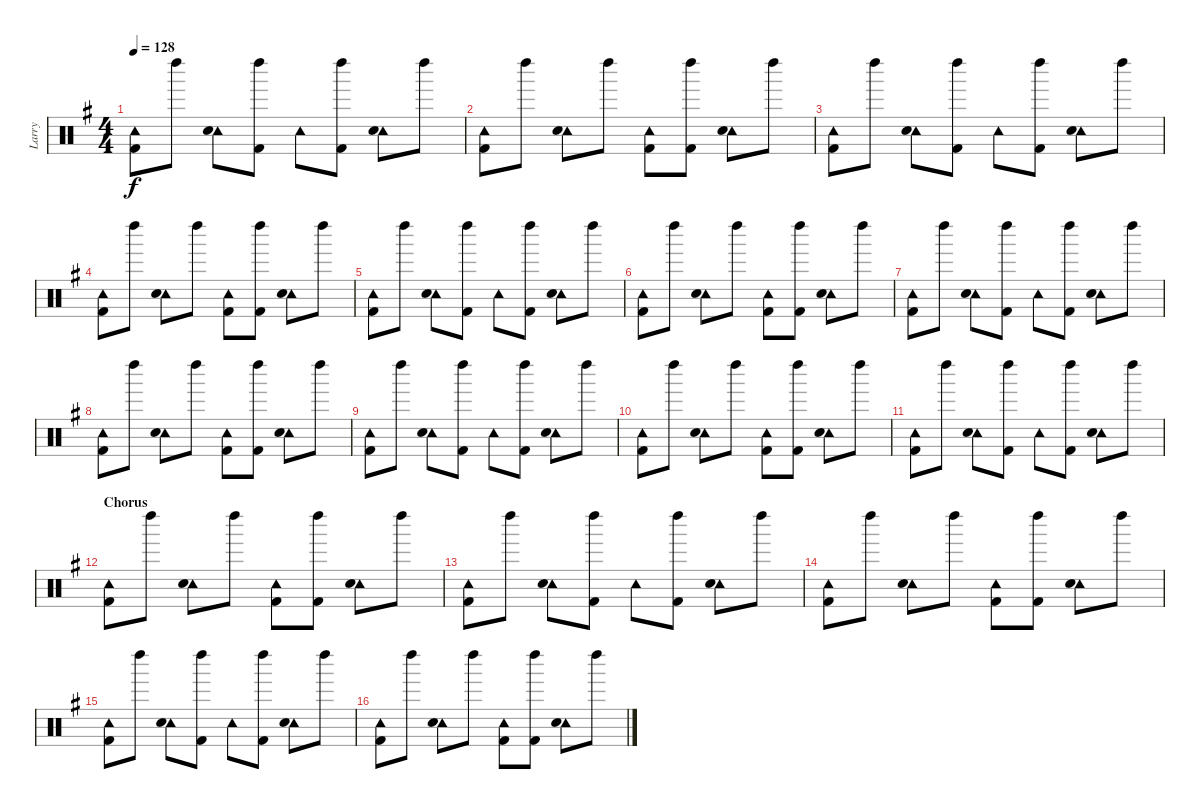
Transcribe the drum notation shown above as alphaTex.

\track ("Larry" "Larry") {instrument percussion}
\staff {score}
\articulation defaults
\ts (4 4)
\tempo 128
\clef neutral
\ks g
("Tambourine (hit)" "Kick (hit) 2").8{dy f} "Left Maraca (hit)".8 ("Tambourine (hit)" "Snare (hit) 2").8 ("Left Maraca (hit)" "Kick (hit) 2").8 "Tambourine (hit)".8 ("Left Maraca (hit)" "Kick (hit) 2").8 ("Tambourine (hit)" "Snare (hit) 2").8 "Left Maraca (hit)".8 |
("Tambourine (hit)" "Kick (hit) 2").8 "Left Maraca (hit)".8 ("Tambourine (hit)" "Snare (hit) 2").8 "Left Maraca (hit)".8 ("Tambourine (hit)" "Kick (hit) 2").8 ("Left Maraca (hit)" "Kick (hit) 2").8 ("Tambourine (hit)" "Snare (hit) 2").8 "Left Maraca (hit)".8 |
("Tambourine (hit)" "Kick (hit) 2").8 "Left Maraca (hit)".8 ("Tambourine (hit)" "Snare (hit) 2").8 ("Left Maraca (hit)" "Kick (hit) 2").8 "Tambourine (hit)".8 ("Left Maraca (hit)" "Kick (hit) 2").8 ("Tambourine (hit)" "Snare (hit) 2").8 "Left Maraca (hit)".8 |
("Tambourine (hit)" "Kick (hit) 2").8 "Left Maraca (hit)".8 ("Tambourine (hit)" "Snare (hit) 2").8 "Left Maraca (hit)".8 ("Tambourine (hit)" "Kick (hit) 2").8 ("Left Maraca (hit)" "Kick (hit) 2").8 ("Tambourine (hit)" "Snare (hit) 2").8 "Left Maraca (hit)".8 |
("Tambourine (hit)" "Kick (hit) 2").8 "Left Maraca (hit)".8 ("Tambourine (hit)" "Snare (hit) 2").8 ("Left Maraca (hit)" "Kick (hit) 2").8 "Tambourine (hit)".8 ("Left Maraca (hit)" "Kick (hit) 2").8 ("Tambourine (hit)" "Snare (hit) 2").8 "Left Maraca (hit)".8 |
("Tambourine (hit)" "Kick (hit) 2").8 "Left Maraca (hit)".8 ("Tambourine (hit)" "Snare (hit) 2").8 "Left Maraca (hit)".8 ("Tambourine (hit)" "Kick (hit) 2").8 ("Left Maraca (hit)" "Kick (hit) 2").8 ("Tambourine (hit)" "Snare (hit) 2").8 "Left Maraca (hit)".8 |
("Tambourine (hit)" "Kick (hit) 2").8 "Left Maraca (hit)".8 ("Tambourine (hit)" "Snare (hit) 2").8 ("Left Maraca (hit)" "Kick (hit) 2").8 "Tambourine (hit)".8 ("Left Maraca (hit)" "Kick (hit) 2").8 ("Tambourine (hit)" "Snare (hit) 2").8 "Left Maraca (hit)".8 |
("Tambourine (hit)" "Kick (hit) 2").8 "Left Maraca (hit)".8 ("Tambourine (hit)" "Snare (hit) 2").8 "Left Maraca (hit)".8 ("Tambourine (hit)" "Kick (hit) 2").8 ("Left Maraca (hit)" "Kick (hit) 2").8 ("Tambourine (hit)" "Snare (hit) 2").8 "Left Maraca (hit)".8 |
("Tambourine (hit)" "Kick (hit) 2").8 "Left Maraca (hit)".8 ("Tambourine (hit)" "Snare (hit) 2").8 ("Left Maraca (hit)" "Kick (hit) 2").8 "Tambourine (hit)".8 ("Left Maraca (hit)" "Kick (hit) 2").8 ("Tambourine (hit)" "Snare (hit) 2").8 "Left Maraca (hit)".8 |
("Tambourine (hit)" "Kick (hit) 2").8 "Left Maraca (hit)".8 ("Tambourine (hit)" "Snare (hit) 2").8 "Left Maraca (hit)".8 ("Tambourine (hit)" "Kick (hit) 2").8 ("Left Maraca (hit)" "Kick (hit) 2").8 ("Tambourine (hit)" "Snare (hit) 2").8 "Left Maraca (hit)".8 |
("Tambourine (hit)" "Kick (hit) 2").8 "Left Maraca (hit)".8 ("Tambourine (hit)" "Snare (hit) 2").8 ("Left Maraca (hit)" "Kick (hit) 2").8 "Tambourine (hit)".8 ("Left Maraca (hit)" "Kick (hit) 2").8 ("Tambourine (hit)" "Snare (hit) 2").8 "Left Maraca (hit)".8 |
\section ("" "Chorus")
("Tambourine (hit)" "Kick (hit) 2").8 "Left Maraca (hit)".8 ("Tambourine (hit)" "Snare (hit) 2").8 "Left Maraca (hit)".8 ("Tambourine (hit)" "Kick (hit) 2").8 ("Left Maraca (hit)" "Kick (hit) 2").8 ("Tambourine (hit)" "Snare (hit) 2").8 "Left Maraca (hit)".8 |
("Tambourine (hit)" "Kick (hit) 2").8 "Left Maraca (hit)".8 ("Tambourine (hit)" "Snare (hit) 2").8 ("Left Maraca (hit)" "Kick (hit) 2").8 "Tambourine (hit)".8 ("Left Maraca (hit)" "Kick (hit) 2").8 ("Tambourine (hit)" "Snare (hit) 2").8 "Left Maraca (hit)".8 |
("Tambourine (hit)" "Kick (hit) 2").8 "Left Maraca (hit)".8 ("Tambourine (hit)" "Snare (hit) 2").8 "Left Maraca (hit)".8 ("Tambourine (hit)" "Kick (hit) 2").8 ("Left Maraca (hit)" "Kick (hit) 2").8 ("Tambourine (hit)" "Snare (hit) 2").8 "Left Maraca (hit)".8 |
("Tambourine (hit)" "Kick (hit) 2").8 "Left Maraca (hit)".8 ("Tambourine (hit)" "Snare (hit) 2").8 ("Left Maraca (hit)" "Kick (hit) 2").8 "Tambourine (hit)".8 ("Left Maraca (hit)" "Kick (hit) 2").8 ("Tambourine (hit)" "Snare (hit) 2").8 "Left Maraca (hit)".8 |
("Tambourine (hit)" "Kick (hit) 2").8 "Left Maraca (hit)".8 ("Tambourine (hit)" "Snare (hit) 2").8 "Left Maraca (hit)".8 ("Tambourine (hit)" "Kick (hit) 2").8 ("Left Maraca (hit)" "Kick (hit) 2").8 ("Tambourine (hit)" "Snare (hit) 2").8 "Left Maraca (hit)".8
